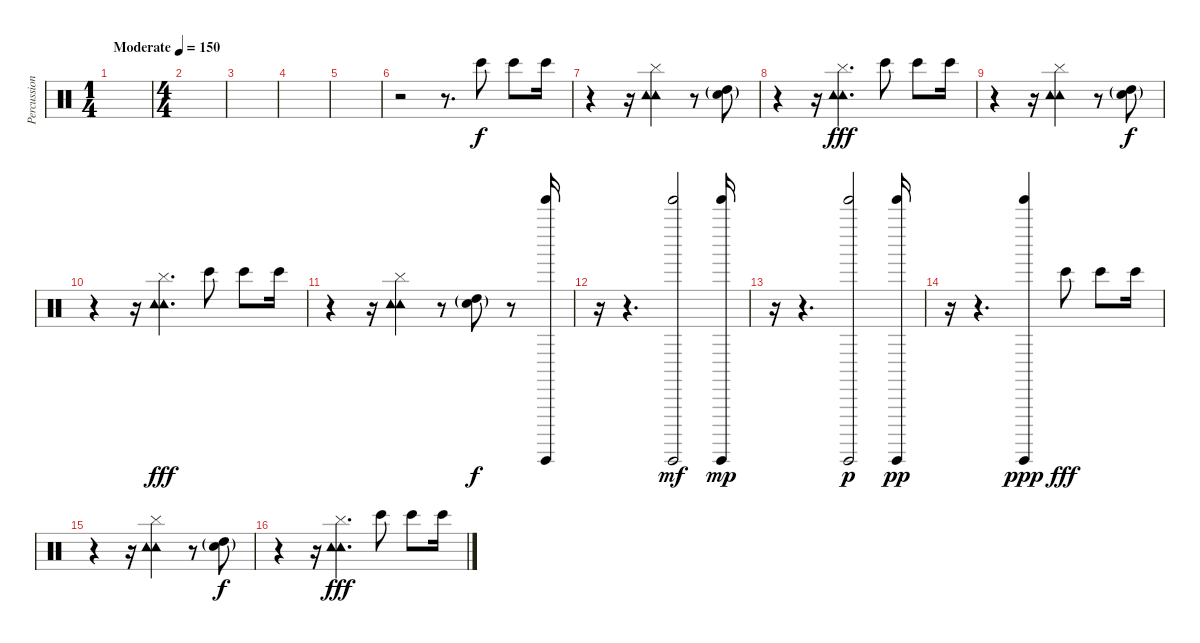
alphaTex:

\track ("Percussion" "Percussion") {instrument percussion}
\staff {score}
\articulation defaults
\ts (1 4)
\tempo (150 "Moderate")
\clef neutral
\ks c
|
\ts (4 4)
|
|
|
|
r.2 r.8{d balance 0} "Bongo High (hit)".8 "Bongo High (hit)".8 "Bongo High (hit)".16 |
r.4{balance 8} r.16 ("Tambourine (hit)" "Cymbal (hit)" "Tambourine (hit)").4{bd 240} r.8 ("Snare (hit) 2"{g} "High Tom (hit)"{g}).8{dy f} |
r.4{balance 8} r.16 ("Tambourine (hit)" "Cymbal (hit)" "Tambourine (hit)").4{d bd 240 dy fff} "Bongo High (hit)".8{balance 0} "Bongo High (hit)".8 "Bongo High (hit)".16 |
r.4{balance 8} r.16 ("Tambourine (hit)" "Cymbal (hit)" "Tambourine (hit)").4{bd 240} r.8 ("Snare (hit) 2"{g} "High Tom (hit)"{g}).8{dy f} |
r.4{balance 8} r.16 ("Tambourine (hit)" "Cymbal (hit)" "Tambourine (hit)").4{d bd 240 dy fff} "Bongo High (hit)".8{balance 0} "Bongo High (hit)".8 "Bongo High (hit)".16 |
r.4{balance 8} r.16 ("Tambourine (hit)" "Cymbal (hit)" "Tambourine (hit)").4{bd 240} r.8 ("Snare (hit) 2"{g} "High Tom (hit)"{g}).8{dy f} r.8 ("Guiro (hit)" "Tinkle Bell (hit)").16 |
r.16 r.4{d} ("Guiro (hit)" "Tinkle Bell (hit)").2{dy mf} ("Guiro (hit)" "Tinkle Bell (hit)").16{dy mp} |
r.16 r.4{d} ("Guiro (hit)" "Tinkle Bell (hit)").2{dy p} ("Guiro (hit)" "Tinkle Bell (hit)").16{dy pp} |
r.16 r.4{d} ("Guiro (hit)" "Tinkle Bell (hit)").4{dy ppp} "Bongo High (hit)".8{dy fff balance 0} "Bongo High (hit)".8 "Bongo High (hit)".16 |
r.4{balance 8} r.16 ("Tambourine (hit)" "Cymbal (hit)" "Tambourine (hit)").4{bd 240} r.8 ("Snare (hit) 2"{g} "High Tom (hit)"{g}).8{dy f} |
r.4{balance 8} r.16 ("Tambourine (hit)" "Cymbal (hit)" "Tambourine (hit)").4{d bd 240 dy fff} "Bongo High (hit)".8{balance 0} "Bongo High (hit)".8 "Bongo High (hit)".16
